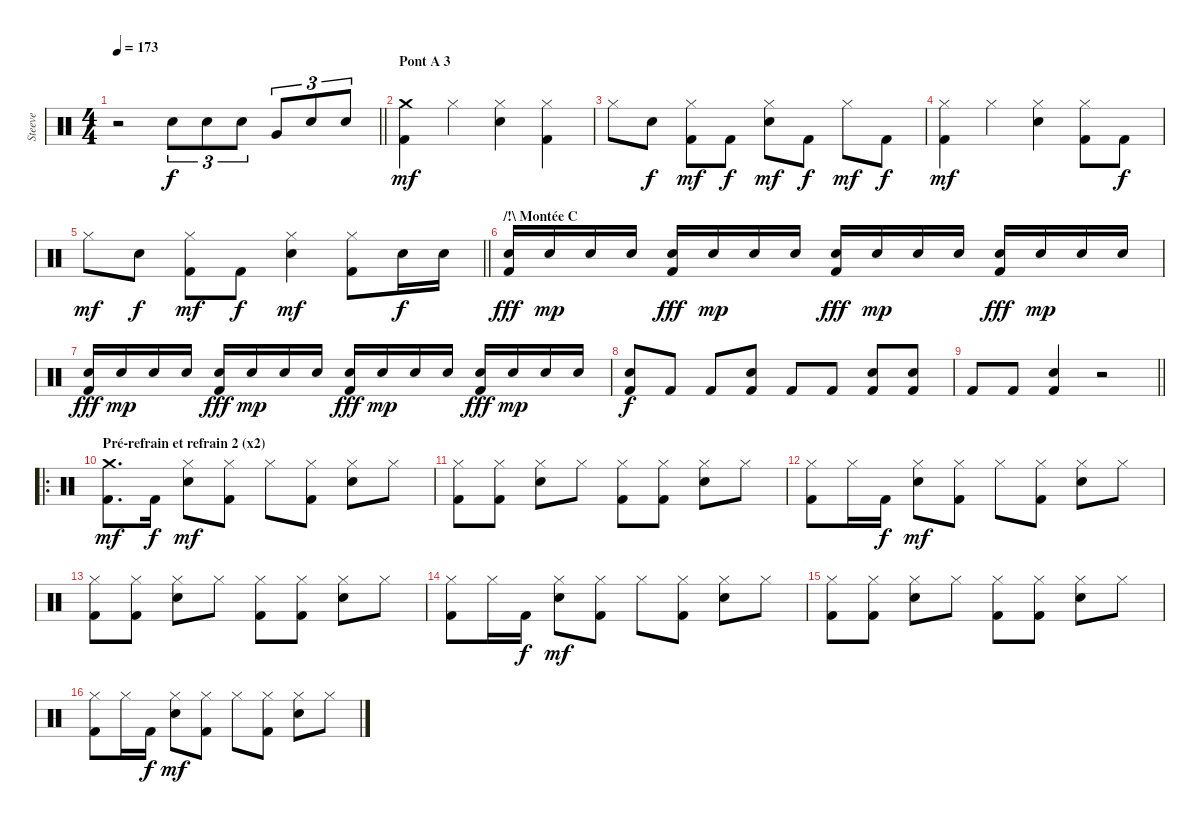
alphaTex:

\track ("Steeve" "Steeve") {instrument percussion}
\staff {score}
\articulation defaults
\ts (4 4)
\tempo 173
\clef neutral
\barLineRight lightlight
\ks c
r.2{dy mf} "Electric Snare (hit)".8{tu (3 2) dy f} "Electric Snare (hit)".8{tu (3 2)} "Electric Snare (hit)".8{tu (3 2)} "Very Low Tom (hit)".8{tu (3 2)} "Electric Snare (hit)".8{tu (3 2)} "Electric Snare (hit)".8{tu (3 2)} |
\section ("" "Pont A 3")
("Crash medium (hit)" "Kick (hit) 2").4{dy mf} "Hi-Hat (closed)".4 ("Hi-Hat (closed)" "Electric Snare (hit)").4 ("Hi-Hat (closed)" "Kick (hit) 2").4 |
"Hi-Hat (closed)".8 "Electric Snare (hit)".8{dy f} ("Hi-Hat (closed)" "Kick (hit) 2").8{dy mf} "Kick (hit) 2".8{dy f} ("Hi-Hat (closed)" "Electric Snare (hit)").8{dy mf} "Kick (hit) 2".8{dy f} "Hi-Hat (closed)".8{dy mf} "Kick (hit) 2".8{dy f} |
("Hi-Hat (closed)" "Kick (hit) 2").4{dy mf} "Hi-Hat (closed)".4 ("Hi-Hat (closed)" "Electric Snare (hit)").4 ("Hi-Hat (closed)" "Kick (hit) 2").8 "Kick (hit) 2".8{dy f} |
\barLineRight lightlight "Hi-Hat (closed)".8{dy mf} "Electric Snare (hit)".8{dy f}
("Hi-Hat (closed)" "Kick (hit) 2").8{dy mf} "Kick (hit) 2".8{dy f} ("Hi-Hat (closed)" "Electric Snare (hit)").4{dy mf} ("Hi-Hat (closed)" "Kick (hit) 2").8 "Electric Snare (hit)".16{dy f} "Electric Snare (hit)".16 |
\section ("" "/!\\ Montée C")
("Electric Snare (hit)" "Kick (hit) 2").16{dy fff} "Electric Snare (hit)".16{dy mp} "Electric Snare (hit)".16 "Electric Snare (hit)".16 ("Electric Snare (hit)" "Kick (hit) 2").16{dy fff} "Electric Snare (hit)".16{dy mp} "Electric Snare (hit)".16 "Electric Snare (hit)".16 ("Electric Snare (hit)" "Kick (hit) 2").16{dy fff} "Electric Snare (hit)".16{dy mp} "Electric Snare (hit)".16 "Electric Snare (hit)".16 ("Electric Snare (hit)" "Kick (hit) 2").16{dy fff} "Electric Snare (hit)".16{dy mp} "Electric Snare (hit)".16 "Electric Snare (hit)".16 |
("Electric Snare (hit)" "Kick (hit) 2").16{dy fff} "Electric Snare (hit)".16{dy mp} "Electric Snare (hit)".16 "Electric Snare (hit)".16 ("Electric Snare (hit)" "Kick (hit) 2").16{dy fff} "Electric Snare (hit)".16{dy mp} "Electric Snare (hit)".16 "Electric Snare (hit)".16 ("Electric Snare (hit)" "Kick (hit) 2").16{dy fff} "Electric Snare (hit)".16{dy mp} "Electric Snare (hit)".16 "Electric Snare (hit)".16 ("Electric Snare (hit)" "Kick (hit) 2").16{dy fff} "Electric Snare (hit)".16{dy mp} "Electric Snare (hit)".16 "Electric Snare (hit)".16 |
("Electric Snare (hit)" "Kick (hit) 2").8{dy f} "Kick (hit) 2".8 "Kick (hit) 2".8 ("Electric Snare (hit)" "Kick (hit) 2").8 "Kick (hit) 2".8 "Kick (hit) 2".8 ("Electric Snare (hit)" "Kick (hit) 2").8 ("Electric Snare (hit)" "Kick (hit) 2").8 |
\barLineRight lightlight "Kick (hit) 2".8 "Kick (hit) 2".8
("Electric Snare (hit)" "Kick (hit) 2").4 r.2 |
\ro
\section ("" "Pré-refrain et refrain 2 (x2)")
("Crash medium (hit)" "Kick (hit) 2").8{d dy mf} "Kick (hit) 2".16{dy f} ("Hi-Hat (closed)" "Electric Snare (hit)").8{dy mf} ("Hi-Hat (closed)" "Kick (hit) 2").8 "Hi-Hat (closed)".8 ("Hi-Hat (closed)" "Kick (hit) 2").8 ("Hi-Hat (closed)" "Electric Snare (hit)").8 "Hi-Hat (closed)".8 |
("Hi-Hat (closed)" "Kick (hit) 2").8 ("Hi-Hat (closed)" "Kick (hit) 2").8 ("Hi-Hat (closed)" "Electric Snare (hit)").8 "Hi-Hat (closed)".8 ("Hi-Hat (closed)" "Kick (hit) 2").8 ("Hi-Hat (closed)" "Kick (hit) 2").8 ("Hi-Hat (closed)" "Electric Snare (hit)").8 "Hi-Hat (closed)".8 |
("Hi-Hat (closed)" "Kick (hit) 2").8 "Hi-Hat (closed)".16 "Kick (hit) 2".16{dy f} ("Hi-Hat (closed)" "Electric Snare (hit)").8{dy mf} ("Hi-Hat (closed)" "Kick (hit) 2").8 "Hi-Hat (closed)".8 ("Hi-Hat (closed)" "Kick (hit) 2").8 ("Hi-Hat (closed)" "Electric Snare (hit)").8 "Hi-Hat (closed)".8 |
("Hi-Hat (closed)" "Kick (hit) 2").8 ("Hi-Hat (closed)" "Kick (hit) 2").8 ("Hi-Hat (closed)" "Electric Snare (hit)").8 "Hi-Hat (closed)".8 ("Hi-Hat (closed)" "Kick (hit) 2").8 ("Hi-Hat (closed)" "Kick (hit) 2").8 ("Hi-Hat (closed)" "Electric Snare (hit)").8 "Hi-Hat (closed)".8 |
("Hi-Hat (closed)" "Kick (hit) 2").8 "Hi-Hat (closed)".16 "Kick (hit) 2".16{dy f} ("Hi-Hat (closed)" "Electric Snare (hit)").8{dy mf} ("Hi-Hat (closed)" "Kick (hit) 2").8 "Hi-Hat (closed)".8 ("Hi-Hat (closed)" "Kick (hit) 2").8 ("Hi-Hat (closed)" "Electric Snare (hit)").8 "Hi-Hat (closed)".8 |
("Hi-Hat (closed)" "Kick (hit) 2").8 ("Hi-Hat (closed)" "Kick (hit) 2").8 ("Hi-Hat (closed)" "Electric Snare (hit)").8 "Hi-Hat (closed)".8 ("Hi-Hat (closed)" "Kick (hit) 2").8 ("Hi-Hat (closed)" "Kick (hit) 2").8 ("Hi-Hat (closed)" "Electric Snare (hit)").8 "Hi-Hat (closed)".8 |
("Hi-Hat (closed)" "Kick (hit) 2").8 "Hi-Hat (closed)".16 "Kick (hit) 2".16{dy f} ("Hi-Hat (closed)" "Electric Snare (hit)").8{dy mf} ("Hi-Hat (closed)" "Kick (hit) 2").8 "Hi-Hat (closed)".8 ("Hi-Hat (closed)" "Kick (hit) 2").8 ("Hi-Hat (closed)" "Electric Snare (hit)").8 "Hi-Hat (closed)".8
